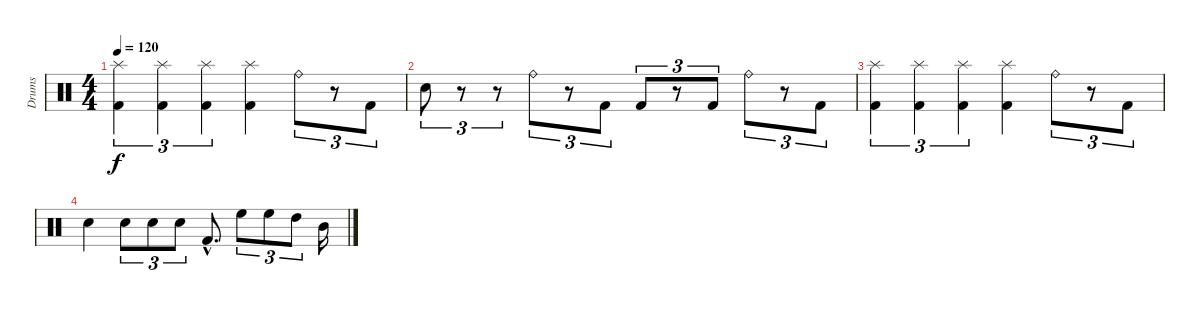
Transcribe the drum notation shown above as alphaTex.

\track ("Drums" "Drums") {instrument percussion}
\staff {score}
\articulation defaults
\ts (4 4)
\tempo 120
\clef neutral
\ks c
("Splash (hit)" "Kick (hit) 2").4{tu (3 2) dy f} ("Splash (hit)" "Kick (hit) 2").4{tu (3 2)} ("Splash (hit)" "Kick (hit) 2").4{tu (3 2)} ("Splash (hit)" "Kick (hit) 2").4 "Ride (bell)".8{tu (3 2)} r.8{tu (3 2)} "Kick (hit) 2".8{tu (3 2)} |
"Snare (hit) 2".8{tu (3 2)} r.8{tu (3 2)} r.8{tu (3 2)} "Ride (bell)".8{tu (3 2)} r.8{tu (3 2)} "Kick (hit) 2".8{tu (3 2)} "Kick (hit) 2".8{tu (3 2)} r.8{tu (3 2)} "Kick (hit) 2".8{tu (3 2)} "Ride (bell)".8{tu (3 2)} r.8{tu (3 2)} "Kick (hit) 2".8{tu (3 2)} |
("Splash (hit)" "Kick (hit) 2").4{tu (3 2)} ("Splash (hit)" "Kick (hit) 2").4{tu (3 2)} ("Splash (hit)" "Kick (hit) 2").4{tu (3 2)} ("Splash (hit)" "Kick (hit) 2").4 "Ride (bell)".8{tu (3 2)} r.8{tu (3 2)} "Kick (hit) 2".8{tu (3 2)} |
"Snare (hit) 2".4 "Snare (hit) 2".8{tu (3 2)} "Snare (hit) 2".8{tu (3 2)} "Snare (hit) 2".8{tu (3 2)} "Kick (hit) 2"{hac}.8{d} "High Floor Tom (hit)".8{tu (3 2)} "High Floor Tom (hit)".8{tu (3 2)} "High Tom (hit)".8{tu (3 2)} "Mid Tom (hit)".16
